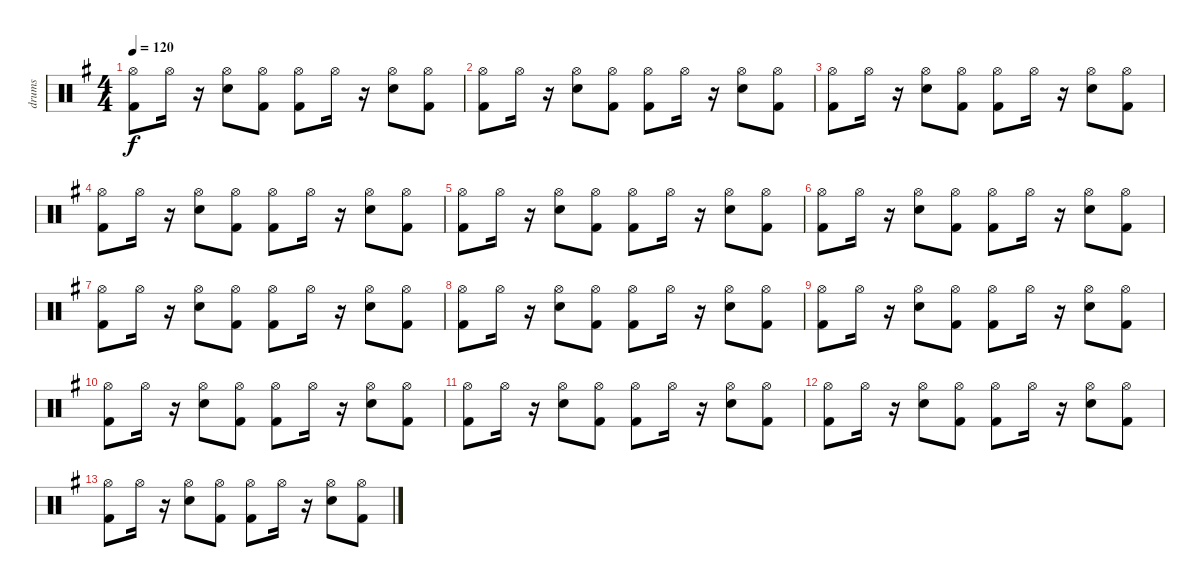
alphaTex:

\track ("drums" "drums") {instrument percussion bank 177}
\staff {score}
\articulation defaults
\ts (4 4)
\tempo 120
\clef neutral
\ks g
("Kick (hit) 2" "Hi-Hat (open)").8{dy f} "Hi-Hat (open)".16 r.16 ("Electric Snare (hit)" "Hi-Hat (open)").8 ("Kick (hit) 2" "Hi-Hat (open)").8 ("Kick (hit) 2" "Hi-Hat (open)").8 "Hi-Hat (open)".16 r.16 ("Electric Snare (hit)" "Hi-Hat (open)").8 ("Kick (hit) 2" "Hi-Hat (open)").8 |
("Hi-Hat (open)" "Kick (hit) 2").8 "Hi-Hat (open)".16 r.16 ("Electric Snare (hit)" "Hi-Hat (open)").8 ("Kick (hit) 2" "Hi-Hat (open)").8 ("Kick (hit) 2" "Hi-Hat (open)").8 "Hi-Hat (open)".16 r.16 ("Electric Snare (hit)" "Hi-Hat (open)").8 ("Kick (hit) 2" "Hi-Hat (open)").8 |
("Hi-Hat (open)" "Kick (hit) 2").8 "Hi-Hat (open)".16 r.16 ("Electric Snare (hit)" "Hi-Hat (open)").8 ("Kick (hit) 2" "Hi-Hat (open)").8 ("Kick (hit) 2" "Hi-Hat (open)").8 "Hi-Hat (open)".16 r.16 ("Electric Snare (hit)" "Hi-Hat (open)").8 ("Kick (hit) 2" "Hi-Hat (open)").8 |
("Hi-Hat (open)" "Kick (hit) 2").8 "Hi-Hat (open)".16 r.16 ("Electric Snare (hit)" "Hi-Hat (open)").8 ("Kick (hit) 2" "Hi-Hat (open)").8 ("Kick (hit) 2" "Hi-Hat (open)").8 "Hi-Hat (open)".16 r.16 ("Electric Snare (hit)" "Hi-Hat (open)").8 ("Kick (hit) 2" "Hi-Hat (open)").8 |
("Kick (hit) 2" "Hi-Hat (open)").8 "Hi-Hat (open)".16 r.16 ("Electric Snare (hit)" "Hi-Hat (open)").8 ("Kick (hit) 2" "Hi-Hat (open)").8 ("Kick (hit) 2" "Hi-Hat (open)").8 "Hi-Hat (open)".16 r.16 ("Electric Snare (hit)" "Hi-Hat (open)").8 ("Kick (hit) 2" "Hi-Hat (open)").8 |
("Kick (hit) 2" "Hi-Hat (open)").8 "Hi-Hat (open)".16 r.16 ("Electric Snare (hit)" "Hi-Hat (open)").8 ("Kick (hit) 2" "Hi-Hat (open)").8 ("Kick (hit) 2" "Hi-Hat (open)").8 "Hi-Hat (open)".16 r.16 ("Electric Snare (hit)" "Hi-Hat (open)").8 ("Kick (hit) 2" "Hi-Hat (open)").8 |
("Kick (hit) 2" "Hi-Hat (open)").8 "Hi-Hat (open)".16 r.16 ("Electric Snare (hit)" "Hi-Hat (open)").8 ("Kick (hit) 2" "Hi-Hat (open)").8 ("Kick (hit) 2" "Hi-Hat (open)").8 "Hi-Hat (open)".16 r.16 ("Electric Snare (hit)" "Hi-Hat (open)").8 ("Kick (hit) 2" "Hi-Hat (open)").8 |
("Kick (hit) 2" "Hi-Hat (open)").8 "Hi-Hat (open)".16 r.16 ("Electric Snare (hit)" "Hi-Hat (open)").8 ("Kick (hit) 2" "Hi-Hat (open)").8 ("Kick (hit) 2" "Hi-Hat (open)").8 "Hi-Hat (open)".16 r.16 ("Electric Snare (hit)" "Hi-Hat (open)").8 ("Kick (hit) 2" "Hi-Hat (open)").8 |
("Hi-Hat (open)" "Kick (hit) 2").8 "Hi-Hat (open)".16 r.16 ("Electric Snare (hit)" "Hi-Hat (open)").8 ("Kick (hit) 2" "Hi-Hat (open)").8 ("Kick (hit) 2" "Hi-Hat (open)").8 "Hi-Hat (open)".16 r.16 ("Electric Snare (hit)" "Hi-Hat (open)").8 ("Kick (hit) 2" "Hi-Hat (open)").8 |
("Kick (hit) 2" "Hi-Hat (open)").8 "Hi-Hat (open)".16 r.16 ("Electric Snare (hit)" "Hi-Hat (open)").8 ("Kick (hit) 2" "Hi-Hat (open)").8 ("Kick (hit) 2" "Hi-Hat (open)").8 "Hi-Hat (open)".16 r.16 ("Electric Snare (hit)" "Hi-Hat (open)").8 ("Kick (hit) 2" "Hi-Hat (open)").8 |
("Hi-Hat (open)" "Kick (hit) 2").8 "Hi-Hat (open)".16 r.16 ("Electric Snare (hit)" "Hi-Hat (open)").8 ("Kick (hit) 2" "Hi-Hat (open)").8 ("Kick (hit) 2" "Hi-Hat (open)").8 "Hi-Hat (open)".16 r.16 ("Electric Snare (hit)" "Hi-Hat (open)").8 ("Kick (hit) 2" "Hi-Hat (open)").8 |
("Kick (hit) 2" "Hi-Hat (open)").8 "Hi-Hat (open)".16 r.16 ("Electric Snare (hit)" "Hi-Hat (open)").8 ("Kick (hit) 2" "Hi-Hat (open)").8 ("Kick (hit) 2" "Hi-Hat (open)").8 "Hi-Hat (open)".16 r.16 ("Electric Snare (hit)" "Hi-Hat (open)").8 ("Kick (hit) 2" "Hi-Hat (open)").8 |
("Kick (hit) 2" "Hi-Hat (open)").8 "Hi-Hat (open)".16 r.16 ("Electric Snare (hit)" "Hi-Hat (open)").8 ("Kick (hit) 2" "Hi-Hat (open)").8 ("Kick (hit) 2" "Hi-Hat (open)").8 "Hi-Hat (open)".16 r.16 ("Electric Snare (hit)" "Hi-Hat (open)").8 ("Kick (hit) 2" "Hi-Hat (open)").8
